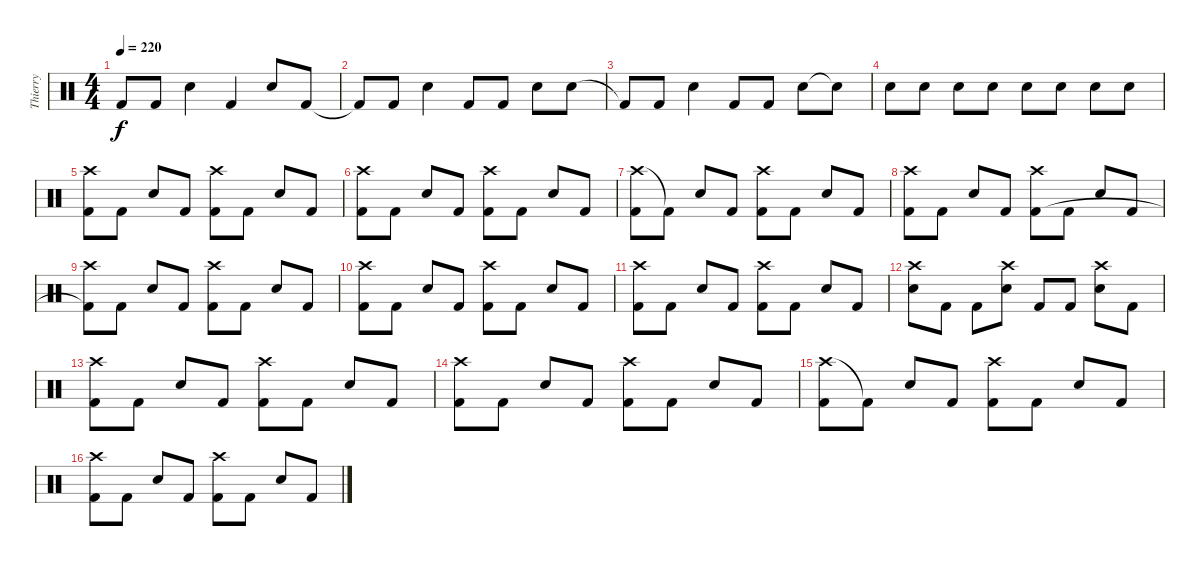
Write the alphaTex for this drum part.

\track ("Thierry" "Thierry") {instrument percussion}
\staff {score}
\articulation defaults
\ts (4 4)
\tempo 220
\clef neutral
\ks c "Kick (hit) 2".8{dy f} "Kick (hit) 2".8 "Electric Snare (hit)".4 "Kick (hit) 2".4 "Electric Snare (hit)".8 "Kick (hit) 2".8
|
"Kick (hit) 2"{t}.8 "Kick (hit) 2".8 "Electric Snare (hit)".4 "Kick (hit) 2".8 "Kick (hit) 2".8 "Electric Snare (hit)".8 "Electric Snare (hit)".8 |
"Kick (hit) 2"{t}.8 "Kick (hit) 2".8 "Electric Snare (hit)".4 "Kick (hit) 2".8 "Kick (hit) 2".8 "Electric Snare (hit)".8 "Electric Snare (hit)"{t}.8 |
"Electric Snare (hit)".8 "Electric Snare (hit)".8 "Electric Snare (hit)".8 "Electric Snare (hit)".8 "Electric Snare (hit)".8 "Electric Snare (hit)".8 "Electric Snare (hit)".8 "Electric Snare (hit)".8 |
("Crash high (hit)" "Kick (hit) 2").8 "Kick (hit) 2".8 "Electric Snare (hit)".8 "Kick (hit) 2".8 ("Crash high (hit)" "Kick (hit) 2").8 "Kick (hit) 2".8 "Electric Snare (hit)".8 "Kick (hit) 2".8 |
("Crash high (hit)" "Kick (hit) 2").8 "Kick (hit) 2".8 "Electric Snare (hit)".8 "Kick (hit) 2".8 ("Crash high (hit)" "Kick (hit) 2").8 "Kick (hit) 2".8 "Electric Snare (hit)".8 "Kick (hit) 2".8 |
("Crash high (hit)" "Kick (hit) 2").8 "Kick (hit) 2"{t}.8 "Electric Snare (hit)".8 "Kick (hit) 2".8 ("Crash high (hit)" "Kick (hit) 2").8 "Kick (hit) 2".8 "Electric Snare (hit)".8 "Kick (hit) 2".8 |
("Crash high (hit)" "Kick (hit) 2").8 "Kick (hit) 2".8 "Electric Snare (hit)".8 "Kick (hit) 2".8 ("Crash high (hit)" "Kick (hit) 2").8 "Kick (hit) 2".8 "Electric Snare (hit)".8 "Kick (hit) 2".8 |
("Crash high (hit)" "Kick (hit) 2"{t}).8 "Kick (hit) 2".8 "Electric Snare (hit)".8 "Kick (hit) 2".8 ("Crash high (hit)" "Kick (hit) 2").8 "Kick (hit) 2".8 "Electric Snare (hit)".8 "Kick (hit) 2".8 |
("Crash high (hit)" "Kick (hit) 2").8 "Kick (hit) 2".8 "Electric Snare (hit)".8 "Kick (hit) 2".8 ("Crash high (hit)" "Kick (hit) 2").8 "Kick (hit) 2".8 "Electric Snare (hit)".8 "Kick (hit) 2".8 |
("Crash high (hit)" "Kick (hit) 2").8 "Kick (hit) 2".8 "Electric Snare (hit)".8 "Kick (hit) 2".8 ("Crash high (hit)" "Kick (hit) 2").8 "Kick (hit) 2".8 "Electric Snare (hit)".8 "Kick (hit) 2".8 |
("Crash high (hit)" "Electric Snare (hit)").8 "Kick (hit) 2".8 "Kick (hit) 2".8 ("Crash high (hit)" "Electric Snare (hit)").8 "Kick (hit) 2".8 "Kick (hit) 2".8 ("Crash high (hit)" "Electric Snare (hit)").8 "Kick (hit) 2".8 |
("Crash high (hit)" "Kick (hit) 2").8 "Kick (hit) 2".8 "Electric Snare (hit)".8 "Kick (hit) 2".8 ("Crash high (hit)" "Kick (hit) 2").8 "Kick (hit) 2".8 "Electric Snare (hit)".8 "Kick (hit) 2".8 |
("Crash high (hit)" "Kick (hit) 2").8 "Kick (hit) 2".8 "Electric Snare (hit)".8 "Kick (hit) 2".8 ("Crash high (hit)" "Kick (hit) 2").8 "Kick (hit) 2".8 "Electric Snare (hit)".8 "Kick (hit) 2".8 |
("Crash high (hit)" "Kick (hit) 2").8 "Kick (hit) 2"{t}.8 "Electric Snare (hit)".8 "Kick (hit) 2".8 ("Crash high (hit)" "Kick (hit) 2").8 "Kick (hit) 2".8 "Electric Snare (hit)".8 "Kick (hit) 2".8 |
("Crash high (hit)" "Kick (hit) 2").8 "Kick (hit) 2".8 "Electric Snare (hit)".8 "Kick (hit) 2".8 ("Crash high (hit)" "Kick (hit) 2").8 "Kick (hit) 2".8 "Electric Snare (hit)".8 "Kick (hit) 2".8
